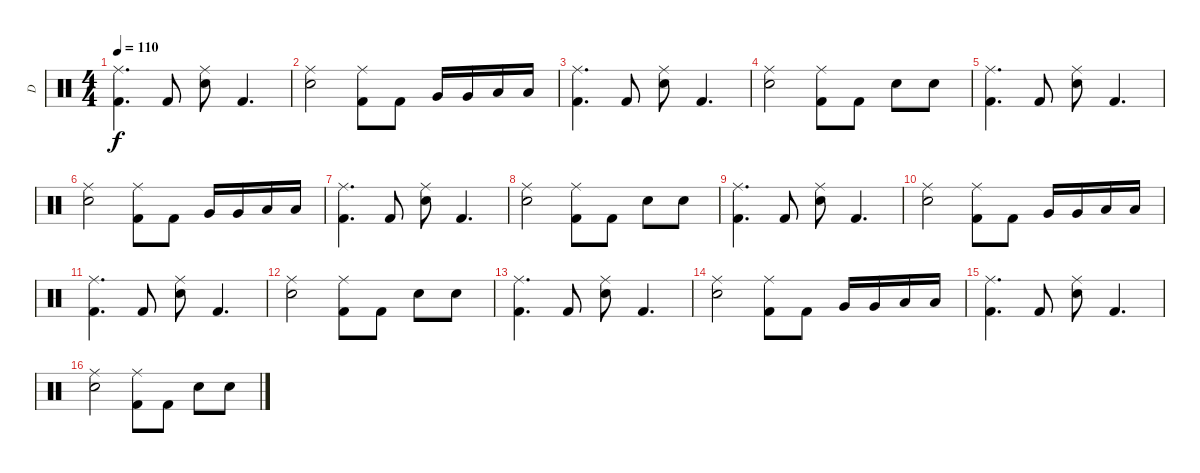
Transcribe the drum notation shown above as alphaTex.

\track ("D" "D") {instrument percussion}
\staff {score}
\articulation defaults
\ts (4 4)
\tempo 110
\clef neutral
\ks c
("Ride (middle)" "Kick (hit) 2").4{d dy f} "Kick (hit) 2".8 ("Ride (middle)" "Electric Snare (hit)").8 "Kick (hit) 2".4{d} |
("Ride (middle)" "Electric Snare (hit)").2 ("Ride (middle)" "Kick (hit) 2").8 "Kick (hit) 2".8 "Very Low Tom (hit)".16 "Very Low Tom (hit)".16 "Low Floor Tom (hit)".16 "Low Floor Tom (hit)".16 |
("Ride (middle)" "Kick (hit) 2").4{d} "Kick (hit) 2".8 ("Ride (middle)" "Electric Snare (hit)").8 "Kick (hit) 2".4{d} |
("Ride (middle)" "Electric Snare (hit)").2 ("Ride (middle)" "Kick (hit) 2").8 "Kick (hit) 2".8 "Electric Snare (hit)".8 "Electric Snare (hit)".8 |
("Ride (middle)" "Kick (hit) 2").4{d} "Kick (hit) 2".8 ("Ride (middle)" "Electric Snare (hit)").8 "Kick (hit) 2".4{d} |
("Ride (middle)" "Electric Snare (hit)").2 ("Ride (middle)" "Kick (hit) 2").8 "Kick (hit) 2".8 "Very Low Tom (hit)".16 "Very Low Tom (hit)".16 "Low Floor Tom (hit)".16 "Low Floor Tom (hit)".16 |
("Ride (middle)" "Kick (hit) 2").4{d} "Kick (hit) 2".8 ("Ride (middle)" "Electric Snare (hit)").8 "Kick (hit) 2".4{d} |
("Ride (middle)" "Electric Snare (hit)").2 ("Ride (middle)" "Kick (hit) 2").8 "Kick (hit) 2".8 "Electric Snare (hit)".8 "Electric Snare (hit)".8 |
("Ride (middle)" "Kick (hit) 2").4{d} "Kick (hit) 2".8 ("Ride (middle)" "Electric Snare (hit)").8 "Kick (hit) 2".4{d} |
("Ride (middle)" "Electric Snare (hit)").2 ("Ride (middle)" "Kick (hit) 2").8 "Kick (hit) 2".8 "Very Low Tom (hit)".16 "Very Low Tom (hit)".16 "Low Floor Tom (hit)".16 "Low Floor Tom (hit)".16 |
("Ride (middle)" "Kick (hit) 2").4{d} "Kick (hit) 2".8 ("Ride (middle)" "Electric Snare (hit)").8 "Kick (hit) 2".4{d} |
("Ride (middle)" "Electric Snare (hit)").2 ("Ride (middle)" "Kick (hit) 2").8 "Kick (hit) 2".8 "Electric Snare (hit)".8 "Electric Snare (hit)".8 |
("Ride (middle)" "Kick (hit) 2").4{d} "Kick (hit) 2".8 ("Ride (middle)" "Electric Snare (hit)").8 "Kick (hit) 2".4{d} |
("Ride (middle)" "Electric Snare (hit)").2 ("Ride (middle)" "Kick (hit) 2").8 "Kick (hit) 2".8 "Very Low Tom (hit)".16 "Very Low Tom (hit)".16 "Low Floor Tom (hit)".16 "Low Floor Tom (hit)".16 |
("Ride (middle)" "Kick (hit) 2").4{d} "Kick (hit) 2".8 ("Ride (middle)" "Electric Snare (hit)").8 "Kick (hit) 2".4{d} |
("Ride (middle)" "Electric Snare (hit)").2 ("Ride (middle)" "Kick (hit) 2").8 "Kick (hit) 2".8 "Electric Snare (hit)".8 "Electric Snare (hit)".8
